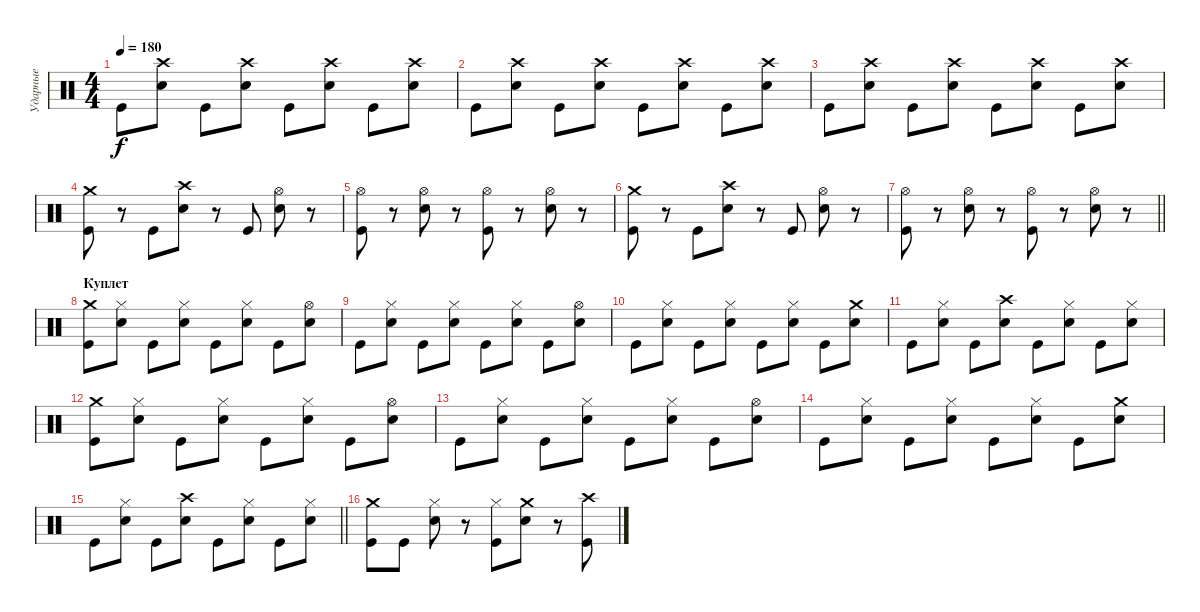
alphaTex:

\track ("Ударные" "Ударные") {instrument percussion}
\staff {score}
\articulation defaults
\ts (4 4)
\tempo 180
\clef neutral
\ks c "Kick (hit)".8{dy f}
("Crash high (hit)" "Electric Snare (hit)").8 "Kick (hit)".8 ("Crash high (hit)" "Electric Snare (hit)").8 "Kick (hit)".8 ("Crash high (hit)" "Electric Snare (hit)").8 "Kick (hit)".8 ("Crash high (hit)" "Electric Snare (hit)").8 |
"Kick (hit)".8 ("Crash high (hit)" "Electric Snare (hit)").8 "Kick (hit)".8 ("Crash high (hit)" "Electric Snare (hit)").8 "Kick (hit)".8 ("Crash high (hit)" "Electric Snare (hit)").8 "Kick (hit)".8 ("Crash high (hit)" "Electric Snare (hit)").8 |
"Kick (hit)".8 ("Crash high (hit)" "Electric Snare (hit)").8 "Kick (hit)".8 ("Crash high (hit)" "Electric Snare (hit)").8 "Kick (hit)".8 ("Crash high (hit)" "Electric Snare (hit)").8 "Kick (hit)".8 ("Crash high (hit)" "Electric Snare (hit)").8 |
("Crash medium (hit)" "Kick (hit)").8 r.8 "Kick (hit)".8 ("Crash high (hit)" "Electric Snare (hit)").8 r.8 "Kick (hit)".8 ("Hi-Hat (open)" "Electric Snare (hit)").8 r.8 |
("Hi-Hat (open)" "Kick (hit)").8 r.8 ("Hi-Hat (open)" "Electric Snare (hit)").8 r.8 ("Hi-Hat (open)" "Kick (hit)").8 r.8 ("Hi-Hat (open)" "Electric Snare (hit)").8 r.8 |
("Crash medium (hit)" "Kick (hit)").8 r.8 "Kick (hit)".8 ("Crash high (hit)" "Electric Snare (hit)").8 r.8 "Kick (hit)".8 ("Hi-Hat (open)" "Electric Snare (hit)").8 r.8 |
\barLineRight lightlight
("Hi-Hat (open)" "Kick (hit)").8 r.8 ("Hi-Hat (open)" "Electric Snare (hit)").8 r.8 ("Hi-Hat (open)" "Kick (hit)").8 r.8 ("Hi-Hat (open)" "Electric Snare (hit)").8 r.8 |
\section ("" "Куплет")
("Crash medium (hit)" "Kick (hit)").8 ("Hi-Hat (closed)" "Electric Snare (hit)").8 "Kick (hit)".8 ("Hi-Hat (closed)" "Electric Snare (hit)").8 "Kick (hit)".8 ("Hi-Hat (closed)" "Electric Snare (hit)").8 "Kick (hit)".8 ("Hi-Hat (open)" "Electric Snare (hit)").8 |
"Kick (hit)".8 ("Hi-Hat (closed)" "Electric Snare (hit)").8 "Kick (hit)".8 ("Hi-Hat (closed)" "Electric Snare (hit)").8 "Kick (hit)".8 ("Hi-Hat (closed)" "Electric Snare (hit)").8 "Kick (hit)".8 ("Hi-Hat (open)" "Electric Snare (hit)").8 |
"Kick (hit)".8 ("Hi-Hat (closed)" "Electric Snare (hit)").8 "Kick (hit)".8 ("Hi-Hat (closed)" "Electric Snare (hit)").8 "Kick (hit)".8 ("Hi-Hat (closed)" "Electric Snare (hit)").8 "Kick (hit)".8 ("Crash medium (hit)" "Electric Snare (hit)").8 |
"Kick (hit)".8 ("Hi-Hat (closed)" "Electric Snare (hit)").8 "Kick (hit)".8 ("Crash high (hit)" "Electric Snare (hit)").8 "Kick (hit)".8 ("Hi-Hat (closed)" "Electric Snare (hit)").8 "Kick (hit)".8 ("Hi-Hat (closed)" "Electric Snare (hit)").8 |
("Crash medium (hit)" "Kick (hit)").8 ("Hi-Hat (closed)" "Electric Snare (hit)").8 "Kick (hit)".8 ("Hi-Hat (closed)" "Electric Snare (hit)").8 "Kick (hit)".8 ("Hi-Hat (closed)" "Electric Snare (hit)").8 "Kick (hit)".8 ("Hi-Hat (open)" "Electric Snare (hit)").8 |
"Kick (hit)".8 ("Hi-Hat (closed)" "Electric Snare (hit)").8 "Kick (hit)".8 ("Hi-Hat (closed)" "Electric Snare (hit)").8 "Kick (hit)".8 ("Hi-Hat (closed)" "Electric Snare (hit)").8 "Kick (hit)".8 ("Hi-Hat (open)" "Electric Snare (hit)").8 |
"Kick (hit)".8 ("Hi-Hat (closed)" "Electric Snare (hit)").8 "Kick (hit)".8 ("Hi-Hat (closed)" "Electric Snare (hit)").8 "Kick (hit)".8 ("Hi-Hat (closed)" "Electric Snare (hit)").8 "Kick (hit)".8 ("Crash medium (hit)" "Electric Snare (hit)").8 |
\barLineRight lightlight "Kick (hit)".8
("Hi-Hat (closed)" "Electric Snare (hit)").8 "Kick (hit)".8 ("Crash high (hit)" "Electric Snare (hit)").8 "Kick (hit)".8 ("Hi-Hat (closed)" "Electric Snare (hit)").8 "Kick (hit)".8 ("Hi-Hat (closed)" "Electric Snare (hit)").8 |
\section ("" " ")
("Crash medium (hit)" "Kick (hit)").8 "Kick (hit)".8 ("Hi-Hat (closed)" "Electric Snare (hit)").8 r.8 ("Hi-Hat (closed)" "Kick (hit)").8 ("Crash medium (hit)" "Electric Snare (hit)").8 r.8 ("Crash high (hit)" "Kick (hit)").8
